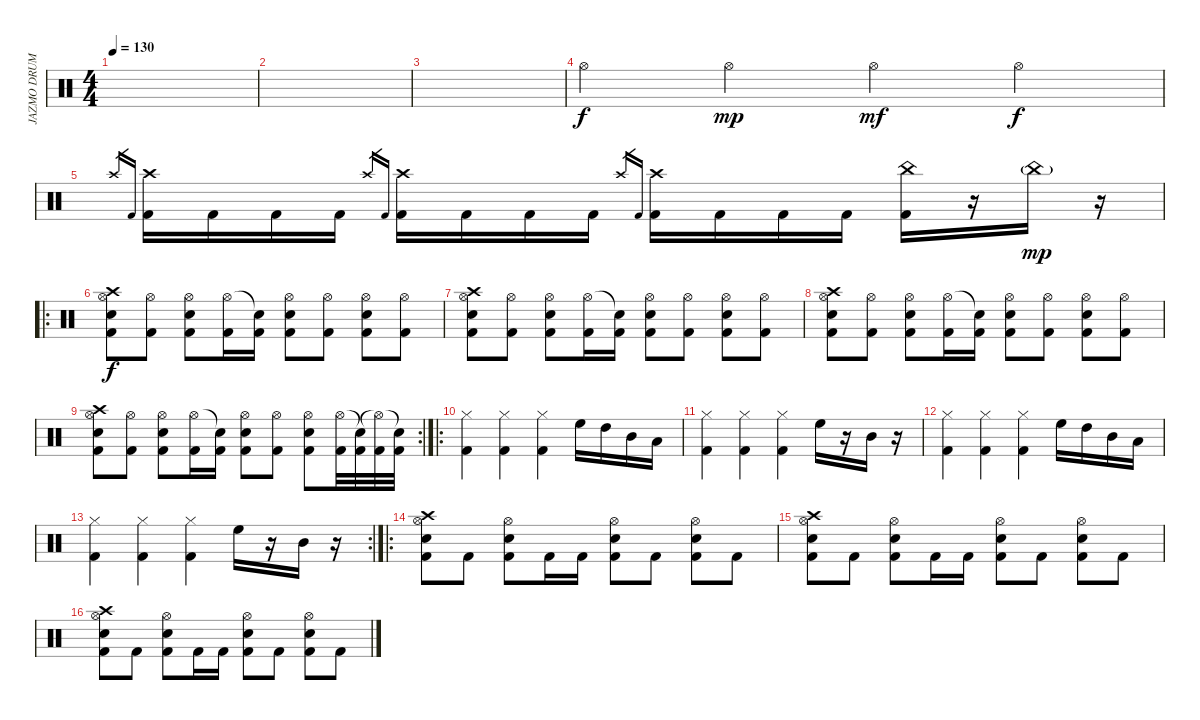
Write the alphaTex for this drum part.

\track ("JAZMO DRUMS" "JAZMO DRUM") {instrument percussion}
\staff {score}
\articulation defaults
\ts (4 4)
\tempo 130
\clef neutral
\ks c
|
|
|
"Hi-Hat (open)".4 "Hi-Hat (open)".4{dy mp} "Hi-Hat (open)".4{dy mf} "Hi-Hat (open)".4{dy f} |
"Crash high (hit)".16{gr} "Kick (hit) 2".16{gr} ("Crash high (hit)" "Kick (hit) 2").16 "Kick (hit) 2".16 "Kick (hit) 2".16 "Kick (hit) 2".16 "Crash high (hit)".16{gr} "Kick (hit) 2".16{gr} ("Crash high (hit)" "Kick (hit) 2").16 "Kick (hit) 2".16 "Kick (hit) 2".16 "Kick (hit) 2".16 "Crash high (hit)".16{gr} "Kick (hit) 2".16{gr} ("Crash high (hit)" "Kick (hit) 2").16 "Kick (hit) 2".16 "Kick (hit) 2".16 "Kick (hit) 2".16 ("China (hit)" "Kick (hit) 2").16 r.16 "China (hit)"{g}.16{dy mp} r.16 |
\ro
("Crash high (hit)" "Hi-Hat (open)" "Snare (hit) 2" "Kick (hit) 2").8{dy f} ("Hi-Hat (open)" "Kick (hit) 2").8 ("Hi-Hat (open)" "Snare (hit) 2" "Kick (hit) 2").8 ("Hi-Hat (open)" "Kick (hit) 2").16 ("Snare (hit)"{t} "Kick (hit) 2").16 ("Hi-Hat (open)" "Snare (hit) 2" "Kick (hit) 2").8 ("Hi-Hat (open)" "Kick (hit) 2").8 ("Hi-Hat (open)" "Snare (hit) 2" "Kick (hit) 2").8 ("Hi-Hat (open)" "Kick (hit) 2").8 |
("Crash high (hit)" "Hi-Hat (open)" "Snare (hit) 2" "Kick (hit) 2").8 ("Hi-Hat (open)" "Kick (hit) 2").8 ("Hi-Hat (open)" "Snare (hit) 2" "Kick (hit) 2").8 ("Hi-Hat (open)" "Kick (hit) 2").16 ("Snare (hit)"{t} "Kick (hit) 2").16 ("Hi-Hat (open)" "Snare (hit) 2" "Kick (hit) 2").8 ("Hi-Hat (open)" "Kick (hit) 2").8 ("Hi-Hat (open)" "Snare (hit) 2" "Kick (hit) 2").8 ("Hi-Hat (open)" "Kick (hit) 2").8 |
("Crash high (hit)" "Hi-Hat (open)" "Snare (hit) 2" "Kick (hit) 2").8 ("Hi-Hat (open)" "Kick (hit) 2").8 ("Hi-Hat (open)" "Snare (hit) 2" "Kick (hit) 2").8 ("Hi-Hat (open)" "Kick (hit) 2").16 ("Snare (hit)"{t} "Kick (hit) 2").16 ("Hi-Hat (open)" "Snare (hit) 2" "Kick (hit) 2").8 ("Hi-Hat (open)" "Kick (hit) 2").8 ("Hi-Hat (open)" "Snare (hit) 2" "Kick (hit) 2").8 ("Hi-Hat (open)" "Kick (hit) 2").8 |
\rc 2
("Crash high (hit)" "Hi-Hat (open)" "Snare (hit) 2" "Kick (hit) 2").8 ("Hi-Hat (open)" "Kick (hit) 2").8 ("Hi-Hat (open)" "Snare (hit) 2" "Kick (hit) 2").8 ("Hi-Hat (open)" "Kick (hit) 2").16 ("Snare (hit)"{t} "Kick (hit) 2").16 ("Hi-Hat (open)" "Snare (hit) 2" "Kick (hit) 2").8 ("Hi-Hat (open)" "Kick (hit) 2").8 ("Hi-Hat (open)" "Snare (hit) 2" "Kick (hit) 2").8 ("Hi-Hat (open)" "Kick (hit) 2").32 ("Snare (hit)"{t} "Kick (hit) 2").32 ("Hi-Hat (open)"{t} "Kick (hit) 2").32 ("Snare (hit)"{t} "Kick (hit) 2").32 |
\ro
("Hi-Hat (closed)" "Kick (hit) 2").4 ("Hi-Hat (closed)" "Kick (hit) 2").4 ("Hi-Hat (closed)" "Kick (hit) 2").4 "High Floor Tom (hit)".16 "High Tom (hit)".16 "Mid Tom (hit)".16 "Low Tom (hit)".16 |
("Hi-Hat (closed)" "Kick (hit) 2").4 ("Hi-Hat (closed)" "Kick (hit) 2").4 ("Hi-Hat (closed)" "Kick (hit) 2").4 "High Floor Tom (hit)".16 r.16 "Mid Tom (hit)".16 r.16 |
("Hi-Hat (closed)" "Kick (hit) 2").4 ("Hi-Hat (closed)" "Kick (hit) 2").4 ("Hi-Hat (closed)" "Kick (hit) 2").4 "High Floor Tom (hit)".16 "High Tom (hit)".16 "Mid Tom (hit)".16 "Low Tom (hit)".16 |
\rc 2
("Hi-Hat (closed)" "Kick (hit) 2").4 ("Hi-Hat (closed)" "Kick (hit) 2").4 ("Hi-Hat (closed)" "Kick (hit) 2").4 "High Floor Tom (hit)".16 r.16 "Mid Tom (hit)".16 r.16 |
\ro
("Crash high (hit)" "Hi-Hat (open)" "Snare (hit) 2" "Kick (hit) 2").8 "Kick (hit) 2".8 ("Hi-Hat (open)" "Snare (hit) 2" "Kick (hit) 2").8 "Kick (hit) 2".16 "Kick (hit) 2".16 ("Hi-Hat (open)" "Snare (hit) 2" "Kick (hit) 2").8 "Kick (hit) 2".8 ("Hi-Hat (open)" "Snare (hit) 2" "Kick (hit) 2").8 "Kick (hit) 2".8 |
("Crash high (hit)" "Hi-Hat (open)" "Snare (hit) 2" "Kick (hit) 2").8 "Kick (hit) 2".8 ("Hi-Hat (open)" "Snare (hit) 2" "Kick (hit) 2").8 "Kick (hit) 2".16 "Kick (hit) 2".16 ("Hi-Hat (open)" "Snare (hit) 2" "Kick (hit) 2").8 "Kick (hit) 2".8 ("Hi-Hat (open)" "Snare (hit) 2" "Kick (hit) 2").8 "Kick (hit) 2".8 |
("Crash high (hit)" "Hi-Hat (open)" "Snare (hit) 2" "Kick (hit) 2").8 "Kick (hit) 2".8 ("Hi-Hat (open)" "Snare (hit) 2" "Kick (hit) 2").8 "Kick (hit) 2".16 "Kick (hit) 2".16 ("Hi-Hat (open)" "Snare (hit) 2" "Kick (hit) 2").8 "Kick (hit) 2".8 ("Hi-Hat (open)" "Snare (hit) 2" "Kick (hit) 2").8 "Kick (hit) 2".8
